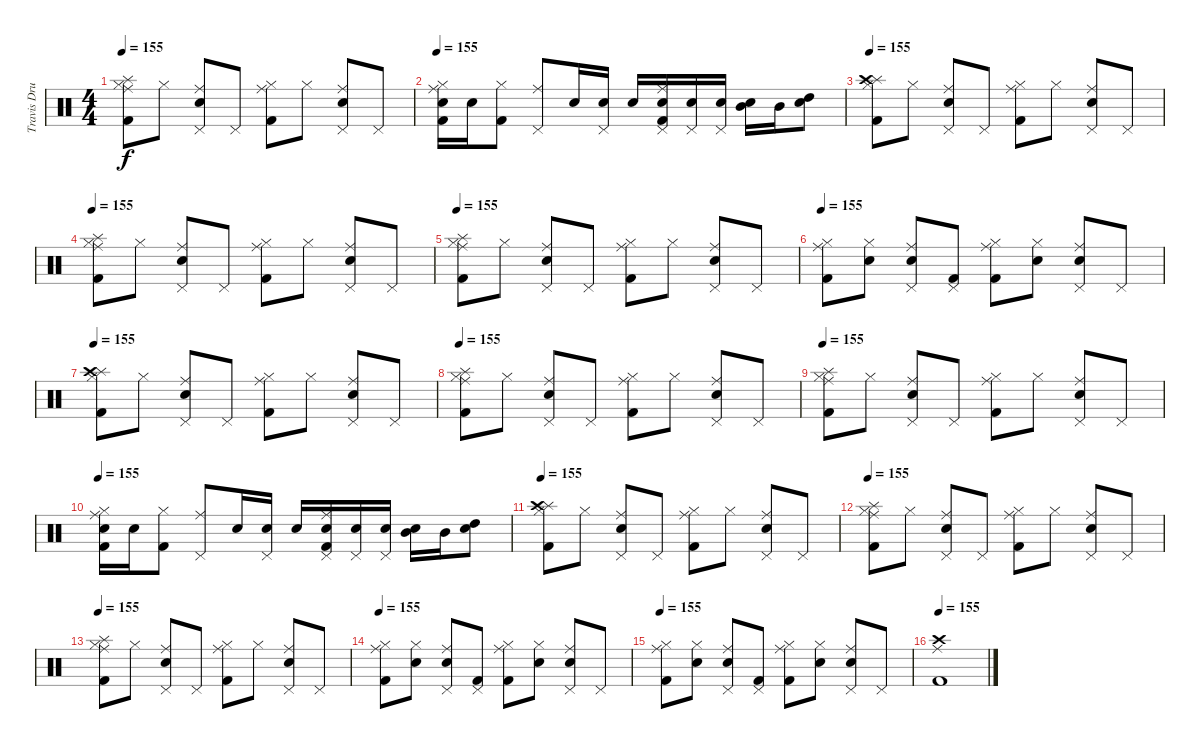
\track ("Travis Drums" "Travis Dru") {instrument percussion}
\staff {score}
\articulation defaults
\ts (4 4)
\tempo 155
\clef neutral
\ks c
("Splash (hit)" "Hi-Hat (closed)" "Kick (hit) 2" "Ride (middle)").8{dy f} "Hi-Hat (closed)".8 ("Electric Snare (hit)" "Pedal Hi-Hat (hit)" "Ride (middle)").8 "Pedal Hi-Hat (hit)".8 ("Hi-Hat (closed)" "Kick (hit) 2" "Ride (middle)").8 "Hi-Hat (closed)".8 ("Electric Snare (hit)" "Pedal Hi-Hat (hit)" "Ride (middle)").8 "Pedal Hi-Hat (hit)".8 |
\tempo 155
("Electric Snare (hit)" "Hi-Hat (closed)" "Kick (hit) 2" "Ride (middle)").16 "Electric Snare (hit)".16 ("Hi-Hat (closed)" "Kick (hit) 2").8 ("Pedal Hi-Hat (hit)" "Ride (middle)").8 "Electric Snare (hit)".16 ("Electric Snare (hit)" "Pedal Hi-Hat (hit)").16 "Electric Snare (hit)".16 ("Electric Snare (hit)" "Pedal Hi-Hat (hit)" "Kick (hit) 2" "Ride (middle)").16 ("Snare (hit) 2" "Pedal Hi-Hat (hit)").16 ("Snare (hit) 2" "Pedal Hi-Hat (hit)").16 ("Electric Snare (hit)" "Mid Tom (hit)").16 "Mid Tom (hit)".16 ("Electric Snare (hit)" "High Tom (hit)").8 |
\tempo 155
("Splash (hit)" "Hi-Hat (closed)" "Kick (hit) 2" "Crash high (hit)").8 "Hi-Hat (closed)".8 ("Electric Snare (hit)" "Pedal Hi-Hat (hit)" "Ride (middle)").8 "Pedal Hi-Hat (hit)".8 ("Hi-Hat (closed)" "Kick (hit) 2" "Ride (middle)").8 "Hi-Hat (closed)".8 ("Electric Snare (hit)" "Pedal Hi-Hat (hit)" "Ride (middle)").8 "Pedal Hi-Hat (hit)".8 |
\tempo 155
("Splash (hit)" "Hi-Hat (closed)" "Kick (hit) 2" "Ride (middle)").8 "Hi-Hat (closed)".8 ("Electric Snare (hit)" "Pedal Hi-Hat (hit)" "Ride (middle)").8 "Pedal Hi-Hat (hit)".8 ("Hi-Hat (closed)" "Kick (hit) 2" "Ride (middle)").8 "Hi-Hat (closed)".8 ("Electric Snare (hit)" "Pedal Hi-Hat (hit)" "Ride (middle)").8 "Pedal Hi-Hat (hit)".8 |
\tempo 155
("Splash (hit)" "Hi-Hat (closed)" "Kick (hit) 2" "Ride (middle)").8 "Hi-Hat (closed)".8 ("Electric Snare (hit)" "Pedal Hi-Hat (hit)" "Ride (middle)").8 "Pedal Hi-Hat (hit)".8 ("Hi-Hat (closed)" "Kick (hit) 2" "Ride (middle)").8 "Hi-Hat (closed)".8 ("Electric Snare (hit)" "Pedal Hi-Hat (hit)" "Ride (middle)").8 "Pedal Hi-Hat (hit)".8 |
\tempo 155
("Hi-Hat (closed)" "Kick (hit) 2" "Ride (middle)").8 ("Electric Snare (hit)" "Hi-Hat (closed)").8 ("Electric Snare (hit)" "Pedal Hi-Hat (hit)" "Ride (middle)").8 ("Pedal Hi-Hat (hit)" "Kick (hit) 2").8 ("Hi-Hat (closed)" "Kick (hit) 2" "Ride (middle)").8 ("Electric Snare (hit)" "Hi-Hat (closed)").8 ("Electric Snare (hit)" "Pedal Hi-Hat (hit)" "Ride (middle)").8 "Pedal Hi-Hat (hit)".8 |
\tempo 155
("Splash (hit)" "Hi-Hat (closed)" "Kick (hit) 2" "Crash high (hit)").8 "Hi-Hat (closed)".8 ("Electric Snare (hit)" "Pedal Hi-Hat (hit)" "Ride (middle)").8 "Pedal Hi-Hat (hit)".8 ("Hi-Hat (closed)" "Kick (hit) 2" "Ride (middle)").8 "Hi-Hat (closed)".8 ("Electric Snare (hit)" "Pedal Hi-Hat (hit)" "Ride (middle)").8 "Pedal Hi-Hat (hit)".8 |
\tempo 155
("Splash (hit)" "Hi-Hat (closed)" "Kick (hit) 2" "Ride (middle)").8 "Hi-Hat (closed)".8 ("Electric Snare (hit)" "Pedal Hi-Hat (hit)" "Ride (middle)").8 "Pedal Hi-Hat (hit)".8 ("Hi-Hat (closed)" "Kick (hit) 2" "Ride (middle)").8 "Hi-Hat (closed)".8 ("Electric Snare (hit)" "Pedal Hi-Hat (hit)" "Ride (middle)").8 "Pedal Hi-Hat (hit)".8 |
\tempo 155
("Splash (hit)" "Hi-Hat (closed)" "Kick (hit) 2" "Ride (middle)").8 "Hi-Hat (closed)".8 ("Electric Snare (hit)" "Pedal Hi-Hat (hit)" "Ride (middle)").8 "Pedal Hi-Hat (hit)".8 ("Hi-Hat (closed)" "Kick (hit) 2" "Ride (middle)").8 "Hi-Hat (closed)".8 ("Electric Snare (hit)" "Pedal Hi-Hat (hit)" "Ride (middle)").8 "Pedal Hi-Hat (hit)".8 |
\tempo 155
("Electric Snare (hit)" "Hi-Hat (closed)" "Kick (hit) 2" "Ride (middle)").16 "Electric Snare (hit)".16 ("Hi-Hat (closed)" "Kick (hit) 2").8 ("Pedal Hi-Hat (hit)" "Ride (middle)").8 "Electric Snare (hit)".16 ("Electric Snare (hit)" "Pedal Hi-Hat (hit)").16 "Electric Snare (hit)".16 ("Electric Snare (hit)" "Pedal Hi-Hat (hit)" "Kick (hit) 2" "Ride (middle)").16 ("Snare (hit) 2" "Pedal Hi-Hat (hit)").16 ("Snare (hit) 2" "Pedal Hi-Hat (hit)").16 ("Electric Snare (hit)" "Mid Tom (hit)").16 "Mid Tom (hit)".16 ("Electric Snare (hit)" "High Tom (hit)").8 |
\tempo 155
("Splash (hit)" "Hi-Hat (closed)" "Kick (hit) 2" "Crash high (hit)").8 "Hi-Hat (closed)".8 ("Electric Snare (hit)" "Pedal Hi-Hat (hit)" "Ride (middle)").8 "Pedal Hi-Hat (hit)".8 ("Hi-Hat (closed)" "Kick (hit) 2" "Ride (middle)").8 "Hi-Hat (closed)".8 ("Electric Snare (hit)" "Pedal Hi-Hat (hit)" "Ride (middle)").8 "Pedal Hi-Hat (hit)".8 |
\tempo 155
("Splash (hit)" "Hi-Hat (closed)" "Kick (hit) 2" "Ride (middle)").8 "Hi-Hat (closed)".8 ("Electric Snare (hit)" "Pedal Hi-Hat (hit)" "Ride (middle)").8 "Pedal Hi-Hat (hit)".8 ("Hi-Hat (closed)" "Kick (hit) 2" "Ride (middle)").8 "Hi-Hat (closed)".8 ("Electric Snare (hit)" "Pedal Hi-Hat (hit)" "Ride (middle)").8 "Pedal Hi-Hat (hit)".8 |
\tempo 155
("Splash (hit)" "Hi-Hat (closed)" "Kick (hit) 2" "Ride (middle)").8 "Hi-Hat (closed)".8 ("Electric Snare (hit)" "Pedal Hi-Hat (hit)" "Ride (middle)").8 "Pedal Hi-Hat (hit)".8 ("Hi-Hat (closed)" "Kick (hit) 2" "Ride (middle)").8 "Hi-Hat (closed)".8 ("Electric Snare (hit)" "Pedal Hi-Hat (hit)" "Ride (middle)").8 "Pedal Hi-Hat (hit)".8 |
\tempo 155
("Hi-Hat (closed)" "Kick (hit) 2" "Ride (middle)").8 ("Electric Snare (hit)" "Hi-Hat (closed)").8 ("Electric Snare (hit)" "Pedal Hi-Hat (hit)" "Ride (middle)").8 ("Pedal Hi-Hat (hit)" "Kick (hit) 2").8 ("Hi-Hat (closed)" "Kick (hit) 2" "Ride (middle)").8 ("Electric Snare (hit)" "Hi-Hat (closed)").8 ("Electric Snare (hit)" "Pedal Hi-Hat (hit)" "Ride (middle)").8 "Pedal Hi-Hat (hit)".8 |
\tempo 155
("Hi-Hat (closed)" "Kick (hit) 2" "Ride (middle)").8 ("Electric Snare (hit)" "Hi-Hat (closed)").8 ("Electric Snare (hit)" "Pedal Hi-Hat (hit)" "Ride (middle)").8 ("Pedal Hi-Hat (hit)" "Kick (hit) 2").8 ("Hi-Hat (closed)" "Kick (hit) 2" "Ride (middle)").8 ("Electric Snare (hit)" "Hi-Hat (closed)").8 ("Electric Snare (hit)" "Pedal Hi-Hat (hit)" "Ride (middle)").8 "Pedal Hi-Hat (hit)".8 |
\tempo 155
("Ride (middle)" "Crash high (hit)" "Kick (hit) 2").1
